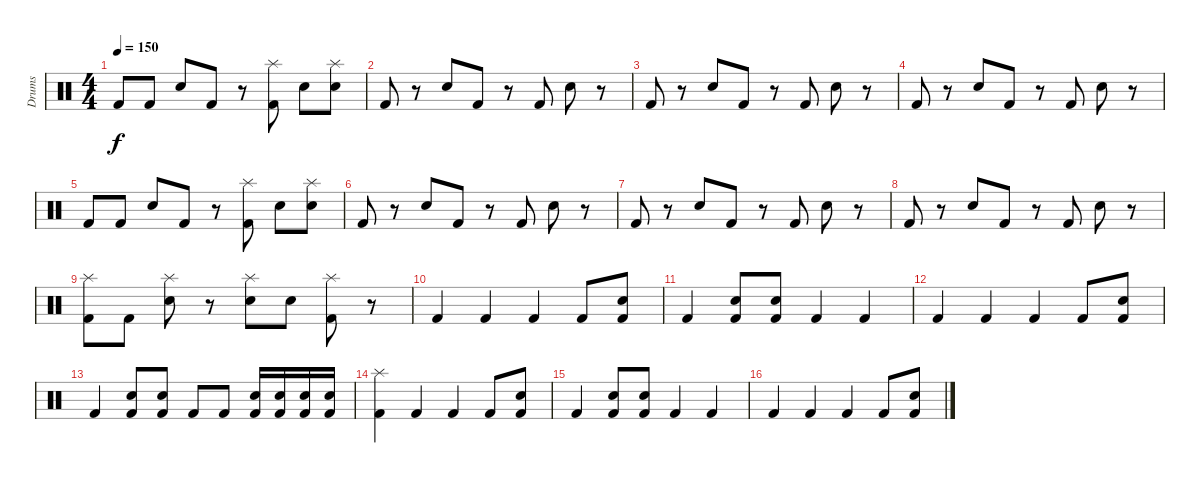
\track ("Drums" "Drums") {instrument percussion}
\staff {score}
\articulation defaults
\ts (4 4)
\tempo 150
\clef neutral
\ks c "Kick (hit) 2".8{dy f} "Kick (hit) 2".8 "Snare (hit) 2".8 "Kick (hit) 2".8
r.8 ("Splash (hit)" "Kick (hit) 2").8 "Snare (hit) 2".8 ("Splash (hit)" "Snare (hit) 2").8 |
"Kick (hit) 2".8 r.8 "Snare (hit) 2".8 "Kick (hit) 2".8 r.8 "Kick (hit) 2".8 "Snare (hit) 2".8 r.8 |
"Kick (hit) 2".8 r.8 "Snare (hit) 2".8 "Kick (hit) 2".8 r.8 "Kick (hit) 2".8 "Snare (hit) 2".8 r.8 |
"Kick (hit) 2".8 r.8 "Snare (hit) 2".8 "Kick (hit) 2".8 r.8 "Kick (hit) 2".8 "Snare (hit) 2".8 r.8 |
"Kick (hit) 2".8 "Kick (hit) 2".8 "Snare (hit) 2".8 "Kick (hit) 2".8 r.8 ("Splash (hit)" "Kick (hit) 2").8 "Snare (hit) 2".8 ("Splash (hit)" "Snare (hit) 2").8 |
"Kick (hit) 2".8 r.8 "Snare (hit) 2".8 "Kick (hit) 2".8 r.8 "Kick (hit) 2".8 "Snare (hit) 2".8 r.8 |
"Kick (hit) 2".8 r.8 "Snare (hit) 2".8 "Kick (hit) 2".8 r.8 "Kick (hit) 2".8 "Snare (hit) 2".8 r.8 |
"Kick (hit) 2".8 r.8 "Snare (hit) 2".8 "Kick (hit) 2".8 r.8 "Kick (hit) 2".8 "Snare (hit) 2".8 r.8 |
("Splash (hit)" "Kick (hit) 2").8 "Kick (hit) 2".8 ("Splash (hit)" "Snare (hit) 2").8 r.8 ("Splash (hit)" "Snare (hit) 2").8 "Snare (hit) 2".8 ("Splash (hit)" "Kick (hit) 2").8 r.8 |
"Kick (hit) 2".4 "Kick (hit) 2".4 "Kick (hit) 2".4 "Kick (hit) 2".8 ("Snare (hit) 2" "Kick (hit) 2").8 |
"Kick (hit) 2".4 ("Snare (hit) 2" "Kick (hit) 2").8 ("Snare (hit) 2" "Kick (hit) 2").8 "Kick (hit) 2".4 "Kick (hit) 2".4 |
"Kick (hit) 2".4 "Kick (hit) 2".4 "Kick (hit) 2".4 "Kick (hit) 2".8 ("Snare (hit) 2" "Kick (hit) 2").8 |
"Kick (hit) 2".4 ("Snare (hit) 2" "Kick (hit) 2").8 ("Snare (hit) 2" "Kick (hit) 2").8 "Kick (hit) 2".8 "Kick (hit) 2".8 ("Snare (hit) 2" "Kick (hit) 2").16 ("Snare (hit) 2" "Kick (hit) 2").16 ("Snare (hit) 2" "Kick (hit) 2").16 ("Snare (hit) 2" "Kick (hit) 2").16 |
("Splash (hit)" "Kick (hit) 2").4 "Kick (hit) 2".4 "Kick (hit) 2".4 "Kick (hit) 2".8 ("Snare (hit) 2" "Kick (hit) 2").8 |
"Kick (hit) 2".4 ("Snare (hit) 2" "Kick (hit) 2").8 ("Snare (hit) 2" "Kick (hit) 2").8 "Kick (hit) 2".4 "Kick (hit) 2".4 |
"Kick (hit) 2".4 "Kick (hit) 2".4 "Kick (hit) 2".4 "Kick (hit) 2".8 ("Snare (hit) 2" "Kick (hit) 2").8
